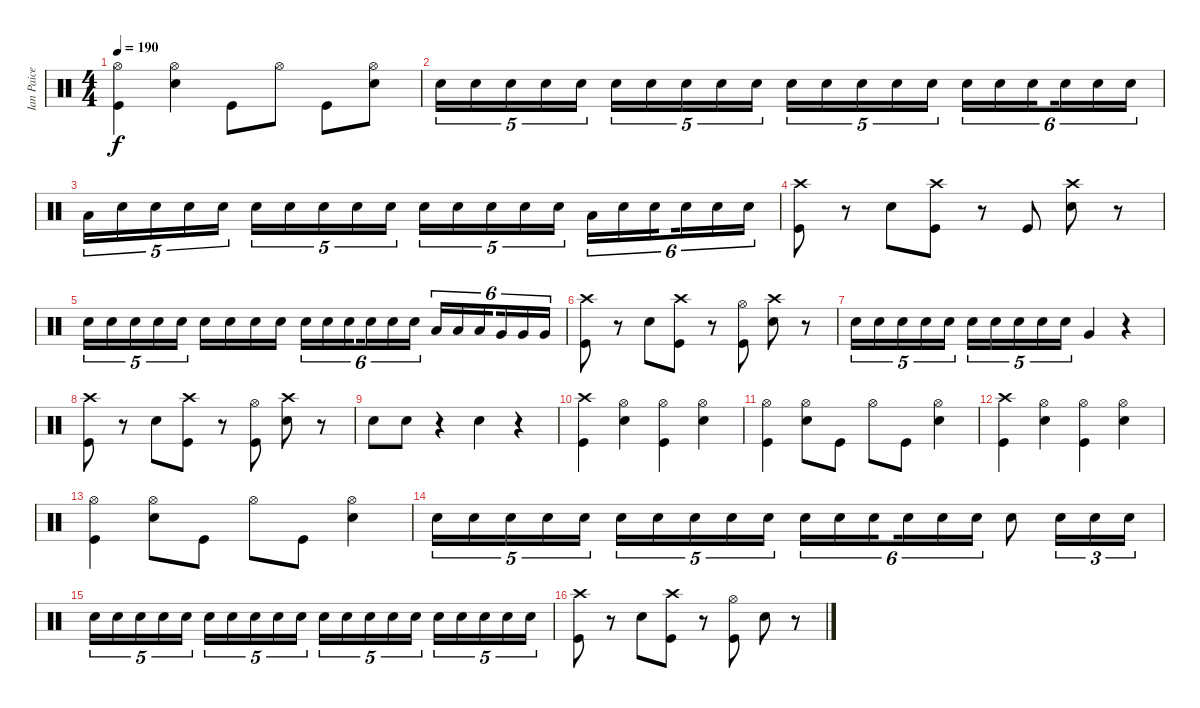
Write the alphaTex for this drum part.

\track ("Ian Paice" "Ian Paice") {instrument percussion}
\staff {score}
\articulation defaults
\ts (4 4)
\tempo 190
\clef neutral
\ks c
("Hi-Hat (open)" "Kick (hit)").4{dy f} ("Snare (hit) 2" "Hi-Hat (open)").4 "Kick (hit)".8 "Hi-Hat (open)".8 "Kick (hit)".8 ("Hi-Hat (open)" "Snare (hit) 2").8 |
"Snare (hit) 2".16{tu (5 4)} "Snare (hit) 2".16{tu (5 4)} "Snare (hit) 2".16{tu (5 4)} "Snare (hit) 2".16{tu (5 4)} "Snare (hit) 2".16{tu (5 4)} "Snare (hit) 2".16{tu (5 4)} "Snare (hit) 2".16{tu (5 4)} "Snare (hit) 2".16{tu (5 4)} "Snare (hit) 2".16{tu (5 4)} "Snare (hit) 2".16{tu (5 4)} "Snare (hit) 2".16{tu (5 4)} "Snare (hit) 2".16{tu (5 4)} "Snare (hit) 2".16{tu (5 4)} "Snare (hit) 2".16{tu (5 4)} "Snare (hit) 2".16{tu (5 4)} "Snare (hit) 2".16{tu (6 4)} "Snare (hit) 2".16{tu (6 4)} "Snare (hit) 2".16{tu (6 4) beam splitsecondary} "Snare (hit) 2".16{tu (6 4)} "Snare (hit) 2".16{tu (6 4)} "Snare (hit) 2".16{tu (6 4)} |
"Low Tom (hit)".16{tu (5 4)} "Snare (hit) 2".16{tu (5 4)} "Snare (hit) 2".16{tu (5 4)} "Snare (hit) 2".16{tu (5 4)} "Snare (hit) 2".16{tu (5 4)} "Snare (hit) 2".16{tu (5 4)} "Snare (hit) 2".16{tu (5 4)} "Snare (hit) 2".16{tu (5 4)} "Snare (hit) 2".16{tu (5 4)} "Snare (hit) 2".16{tu (5 4)} "Snare (hit) 2".16{tu (5 4)} "Snare (hit) 2".16{tu (5 4)} "Snare (hit) 2".16{tu (5 4)} "Snare (hit) 2".16{tu (5 4)} "Snare (hit) 2".16{tu (5 4)} "Low Tom (hit)".16{tu (6 4)} "Snare (hit) 2".16{tu (6 4)} "Snare (hit) 2".16{tu (6 4) beam splitsecondary} "Snare (hit) 2".16{tu (6 4)} "Snare (hit) 2".16{tu (6 4)} "Snare (hit) 2".16{tu (6 4)} |
("Kick (hit)" "Crash high (hit)").8 r.8 "Snare (hit) 2".8 ("Kick (hit)" "Crash high (hit)").8 r.8 "Kick (hit)".8 ("Snare (hit) 2" "Crash high (hit)").8 r.8 |
"Snare (hit) 2".16{tu (5 4)} "Snare (hit) 2".16{tu (5 4)} "Snare (hit) 2".16{tu (5 4)} "Snare (hit) 2".16{tu (5 4)} "Snare (hit) 2".16{tu (5 4)} "Snare (hit) 2".16 "Snare (hit) 2".16 "Snare (hit) 2".16 "Snare (hit) 2".16 "Snare (hit) 2".16{tu (6 4)} "Snare (hit) 2".16{tu (6 4)} "Snare (hit) 2".16{tu (6 4) beam splitsecondary} "Snare (hit) 2".16{tu (6 4)} "Snare (hit) 2".16{tu (6 4)} "Snare (hit) 2".16{tu (6 4)} "Low Tom (hit)".16{tu (6 4)} "Low Tom (hit)".16{tu (6 4)} "Low Tom (hit)".16{tu (6 4) beam splitsecondary} "Very Low Tom (hit)".16{tu (6 4)} "Very Low Tom (hit)".16{tu (6 4)} "Very Low Tom (hit)".16{tu (6 4)} |
("Kick (hit)" "Crash high (hit)").8 r.8 "Snare (hit) 2".8 ("Crash high (hit)" "Kick (hit)").8 r.8 ("Hi-Hat (open)" "Kick (hit)").8 ("Crash high (hit)" "Snare (hit) 2").8 r.8 |
"Snare (hit) 2".16{tu (5 4)} "Snare (hit) 2".16{tu (5 4)} "Snare (hit) 2".16{tu (5 4)} "Snare (hit) 2".16{tu (5 4)} "Snare (hit) 2".16{tu (5 4)} "Snare (hit) 2".16{tu (5 4)} "Snare (hit) 2".16{tu (5 4)} "Snare (hit) 2".16{tu (5 4)} "Snare (hit) 2".16{tu (5 4)} "Snare (hit) 2".16{tu (5 4)} "Very Low Tom (hit)".4 r.4 |
("Kick (hit)" "Crash high (hit)").8 r.8 "Snare (hit) 2".8 ("Kick (hit)" "Crash high (hit)").8 r.8 ("Kick (hit)" "Hi-Hat (open)").8 ("Crash high (hit)" "Snare (hit) 2").8 r.8 |
"Snare (hit) 2".8 "Snare (hit) 2".8 r.4 "Snare (hit) 2".4 r.4 |
("Kick (hit)" "Crash high (hit)").4 ("Snare (hit) 2" "Hi-Hat (open)").4 ("Hi-Hat (open)" "Kick (hit)").4 ("Snare (hit) 2" "Hi-Hat (open)").4 |
("Kick (hit)" "Hi-Hat (open)").4 ("Snare (hit) 2" "Hi-Hat (open)").8 "Kick (hit)".8 "Hi-Hat (open)".8 "Kick (hit)".8 ("Snare (hit) 2" "Hi-Hat (open)").4 |
("Kick (hit)" "Crash high (hit)").4 ("Hi-Hat (open)" "Snare (hit) 2").4 ("Kick (hit)" "Hi-Hat (open)").4 ("Snare (hit) 2" "Hi-Hat (open)").4 |
("Hi-Hat (open)" "Kick (hit)").4 ("Snare (hit) 2" "Hi-Hat (open)").8 "Kick (hit)".8 "Hi-Hat (open)".8 "Kick (hit)".8 ("Hi-Hat (open)" "Snare (hit) 2").4 |
"Snare (hit) 2".16{tu (5 4)} "Snare (hit) 2".16{tu (5 4)} "Snare (hit) 2".16{tu (5 4)} "Snare (hit) 2".16{tu (5 4)} "Snare (hit) 2".16{tu (5 4)} "Snare (hit) 2".16{tu (5 4)} "Snare (hit) 2".16{tu (5 4)} "Snare (hit) 2".16{tu (5 4)} "Snare (hit) 2".16{tu (5 4)} "Snare (hit) 2".16{tu (5 4)} "Snare (hit) 2".16{tu (6 4)} "Snare (hit) 2".16{tu (6 4)} "Snare (hit) 2".16{tu (6 4) beam splitsecondary} "Snare (hit) 2".16{tu (6 4)} "Snare (hit) 2".16{tu (6 4)} "Snare (hit) 2".16{tu (6 4)} "Snare (hit) 2".8 "Snare (hit) 2".16{tu (3 2)} "Snare (hit) 2".16{tu (3 2)} "Snare (hit) 2".16{tu (3 2)} |
"Snare (hit) 2".16{tu (5 4)} "Snare (hit) 2".16{tu (5 4)} "Snare (hit) 2".16{tu (5 4)} "Snare (hit) 2".16{tu (5 4)} "Snare (hit) 2".16{tu (5 4)} "Snare (hit) 2".16{tu (5 4)} "Snare (hit) 2".16{tu (5 4)} "Snare (hit) 2".16{tu (5 4)} "Snare (hit) 2".16{tu (5 4)} "Snare (hit) 2".16{tu (5 4)} "Snare (hit) 2".16{tu (5 4)} "Snare (hit) 2".16{tu (5 4)} "Snare (hit) 2".16{tu (5 4)} "Snare (hit) 2".16{tu (5 4)} "Snare (hit) 2".16{tu (5 4)} "Snare (hit) 2".16{tu (5 4)} "Snare (hit) 2".16{tu (5 4)} "Snare (hit) 2".16{tu (5 4)} "Snare (hit) 2".16{tu (5 4)} "Snare (hit) 2".16{tu (5 4)} |
("Crash high (hit)" "Kick (hit)").8 r.8 "Snare (hit) 2".8 ("Kick (hit)" "Crash high (hit)").8 r.8 ("Hi-Hat (open)" "Kick (hit)").8 "Snare (hit) 2".8 r.8
